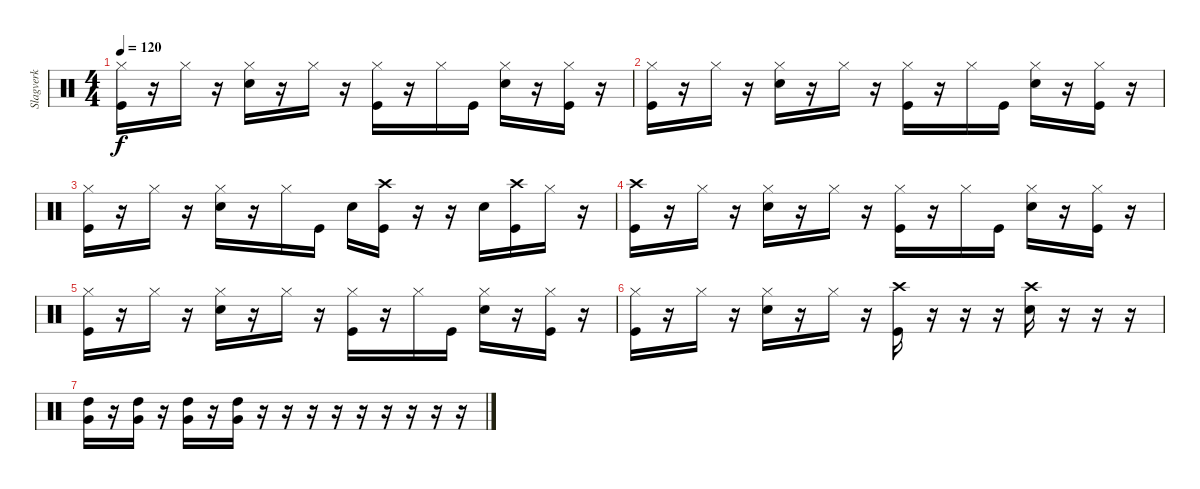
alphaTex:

\track ("Slagverk" "Slagverk") {instrument percussion}
\staff {score}
\articulation defaults
\ts (4 4)
\tempo 120
\clef neutral
\ks c
("Hi-Hat (closed)" "Kick (hit)").16{dy f} r.16 "Hi-Hat (closed)".16 r.16 ("Hi-Hat (closed)" "Snare (hit) 2").16 r.16 "Hi-Hat (closed)".16 r.16 ("Hi-Hat (closed)" "Kick (hit)").16 r.16 "Hi-Hat (closed)".16 "Kick (hit)".16 ("Hi-Hat (closed)" "Snare (hit) 2").16 r.16 ("Hi-Hat (closed)" "Kick (hit)").16 r.16 |
("Hi-Hat (closed)" "Kick (hit)").16 r.16 "Hi-Hat (closed)".16 r.16 ("Hi-Hat (closed)" "Snare (hit) 2").16 r.16 "Hi-Hat (closed)".16 r.16 ("Hi-Hat (closed)" "Kick (hit)").16 r.16 "Hi-Hat (closed)".16 "Kick (hit)".16 ("Hi-Hat (closed)" "Snare (hit) 2").16 r.16 ("Hi-Hat (closed)" "Kick (hit)").16 r.16 |
("Hi-Hat (closed)" "Kick (hit)").16 r.16 "Hi-Hat (closed)".16 r.16 ("Hi-Hat (closed)" "Snare (hit) 2").16 r.16 "Hi-Hat (closed)".16 "Kick (hit)".16 "Snare (hit) 2".16 ("Crash high (hit)" "Kick (hit)").16 r.16 r.16 "Snare (hit) 2".16 ("Crash high (hit)" "Kick (hit)").16 "Hi-Hat (closed)".16 r.16 |
("Crash high (hit)" "Kick (hit)").16 r.16 "Hi-Hat (closed)".16 r.16 ("Hi-Hat (closed)" "Snare (hit) 2").16 r.16 "Hi-Hat (closed)".16 r.16 ("Hi-Hat (closed)" "Kick (hit)").16 r.16 "Hi-Hat (closed)".16 "Kick (hit)".16 ("Hi-Hat (closed)" "Snare (hit) 2").16 r.16 ("Hi-Hat (closed)" "Kick (hit)").16 r.16 |
("Hi-Hat (closed)" "Kick (hit)").16 r.16 "Hi-Hat (closed)".16 r.16 ("Hi-Hat (closed)" "Snare (hit) 2").16 r.16 "Hi-Hat (closed)".16 r.16 ("Hi-Hat (closed)" "Kick (hit)").16 r.16 "Hi-Hat (closed)".16 "Kick (hit)".16 ("Hi-Hat (closed)" "Snare (hit) 2").16 r.16 ("Hi-Hat (closed)" "Kick (hit)").16 r.16 |
("Hi-Hat (closed)" "Kick (hit)").16 r.16 "Hi-Hat (closed)".16 r.16 ("Hi-Hat (closed)" "Snare (hit) 2").16 r.16 "Hi-Hat (closed)".16 r.16 ("Crash high (hit)" "Kick (hit)").16 r.16 r.16 r.16 ("Crash high (hit)" "Snare (hit) 2").16 r.16 r.16 r.16 |
("Very Low Tom (hit)" "High Tom (hit)").16 r.16 ("Very Low Tom (hit)" "High Tom (hit)").16 r.16 ("Very Low Tom (hit)" "High Tom (hit)").16 r.16 ("Very Low Tom (hit)" "High Tom (hit)").16 r.16 r.16 r.16 r.16 r.16 r.16 r.16 r.16 r.16
